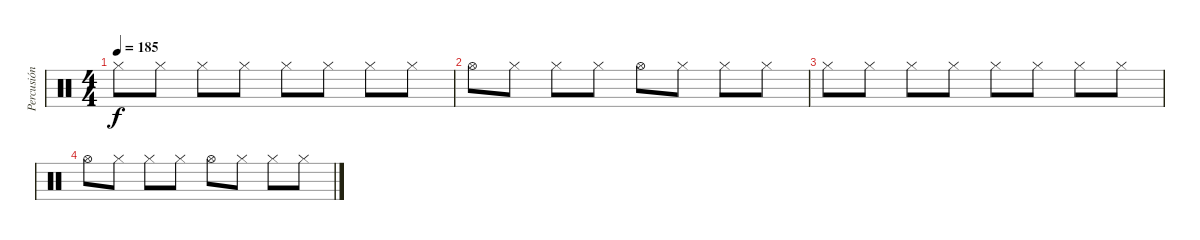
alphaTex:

\track ("Percusión" "Percusión") {instrument percussion}
\staff {score}
\articulation defaults
\ts (4 4)
\tempo 185
\clef neutral
\ks c "Hi-Hat (closed)".8{dy f} "Hi-Hat (closed)".8 "Hi-Hat (closed)".8 "Hi-Hat (closed)".8 "Hi-Hat (closed)".8 "Hi-Hat (closed)".8 "Hi-Hat (closed)".8 "Hi-Hat (closed)".8
|
"Hi-Hat (open)".8 "Hi-Hat (closed)".8 "Hi-Hat (closed)".8 "Hi-Hat (closed)".8 "Hi-Hat (open)".8 "Hi-Hat (closed)".8 "Hi-Hat (closed)".8 "Hi-Hat (closed)".8 |
"Hi-Hat (closed)".8 "Hi-Hat (closed)".8 "Hi-Hat (closed)".8 "Hi-Hat (closed)".8 "Hi-Hat (closed)".8 "Hi-Hat (closed)".8 "Hi-Hat (closed)".8 "Hi-Hat (closed)".8 |
"Hi-Hat (open)".8 "Hi-Hat (closed)".8 "Hi-Hat (closed)".8 "Hi-Hat (closed)".8 "Hi-Hat (open)".8 "Hi-Hat (closed)".8 "Hi-Hat (closed)".8 "Hi-Hat (closed)".8
